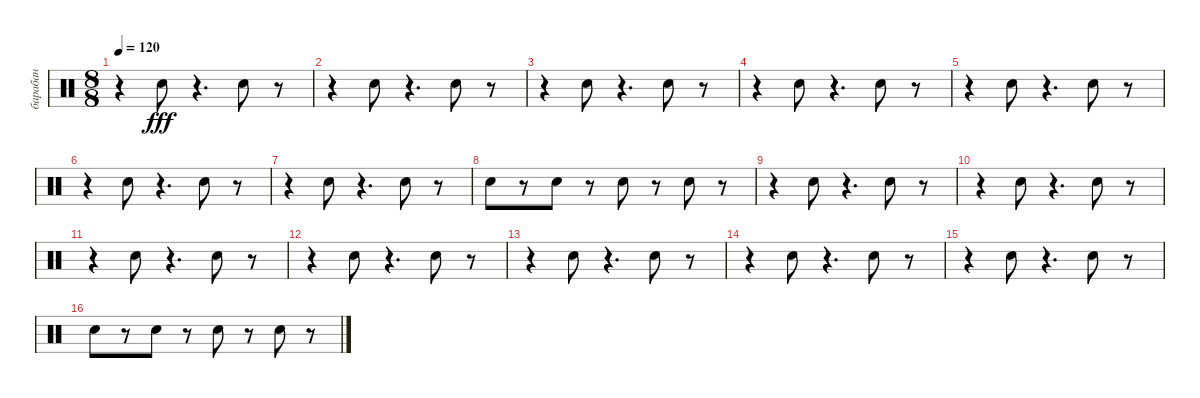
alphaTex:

\track ("барабан" "барабан") {instrument percussion}
\staff {score}
\articulation defaults
\ts (8 8)
\tempo 120
\clef neutral
\ks c
r.4{dy fff} "Snare (hit) 2".8 r.4{d} "Snare (hit) 2".8 r.8 |
r.4 "Snare (hit) 2".8 r.4{d} "Snare (hit) 2".8 r.8 |
r.4 "Snare (hit) 2".8 r.4{d} "Snare (hit) 2".8 r.8 |
r.4 "Snare (hit) 2".8 r.4{d} "Snare (hit) 2".8 r.8 |
r.4 "Snare (hit) 2".8 r.4{d} "Snare (hit) 2".8 r.8 |
r.4 "Snare (hit) 2".8 r.4{d} "Snare (hit) 2".8 r.8 |
r.4 "Snare (hit) 2".8 r.4{d} "Snare (hit) 2".8 r.8 |
"Snare (hit) 2".8 r.8 "Snare (hit) 2".8 r.8 "Snare (hit) 2".8 r.8 "Snare (hit) 2".8 r.8 |
r.4 "Snare (hit) 2".8 r.4{d} "Snare (hit) 2".8 r.8 |
r.4 "Snare (hit) 2".8 r.4{d} "Snare (hit) 2".8 r.8 |
r.4 "Snare (hit) 2".8 r.4{d} "Snare (hit) 2".8 r.8 |
r.4 "Snare (hit) 2".8 r.4{d} "Snare (hit) 2".8 r.8 |
r.4 "Snare (hit) 2".8 r.4{d} "Snare (hit) 2".8 r.8 |
r.4 "Snare (hit) 2".8 r.4{d} "Snare (hit) 2".8 r.8 |
r.4 "Snare (hit) 2".8 r.4{d} "Snare (hit) 2".8 r.8 |
"Snare (hit) 2".8 r.8 "Snare (hit) 2".8 r.8 "Snare (hit) 2".8 r.8 "Snare (hit) 2".8 r.8
